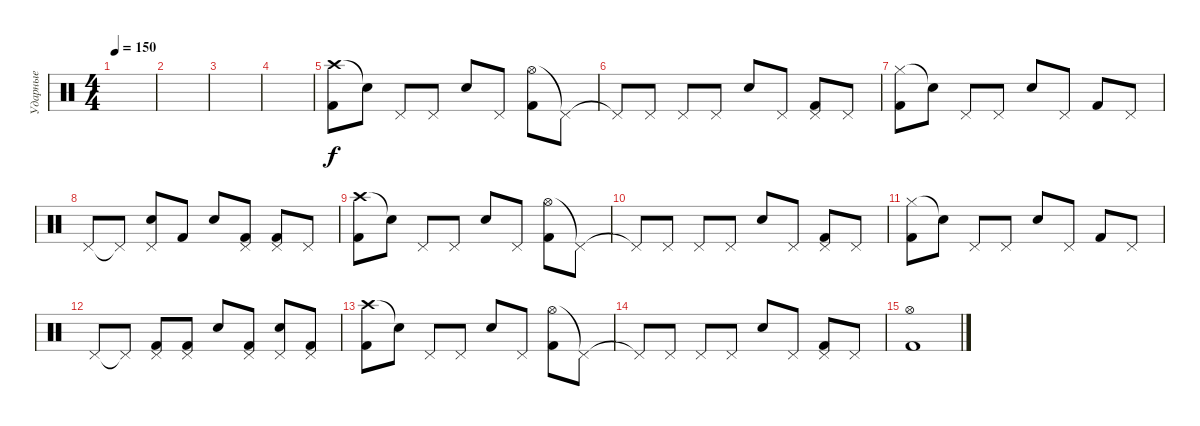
\track ("Ударные" "Ударные") {instrument percussion}
\staff {score}
\articulation defaults
\ts (4 4)
\tempo 150
\clef neutral
\ks c
|
|
|
|
("Crash high (hit)" "Kick (hit) 2").8 "Snare (hit)"{t}.8 "Pedal Hi-Hat (hit)".8 "Pedal Hi-Hat (hit)".8 "Electric Snare (hit)".8 "Pedal Hi-Hat (hit)".8 ("Hi-Hat (open)" "Kick (hit) 2").8 "Pedal Hi-Hat (hit)"{t}.8 |
"Pedal Hi-Hat (hit)"{t}.8 "Pedal Hi-Hat (hit)".8 "Pedal Hi-Hat (hit)".8 "Pedal Hi-Hat (hit)".8 "Electric Snare (hit)".8 "Pedal Hi-Hat (hit)".8 ("Pedal Hi-Hat (hit)" "Kick (hit) 2").8 "Pedal Hi-Hat (hit)".8 |
("Hi-Hat (closed)" "Kick (hit) 2").8 "Snare (hit)"{t}.8 "Pedal Hi-Hat (hit)".8 "Pedal Hi-Hat (hit)".8 "Electric Snare (hit)".8 "Pedal Hi-Hat (hit)".8 "Kick (hit) 2".8 "Pedal Hi-Hat (hit)".8 |
"Pedal Hi-Hat (hit)".8 "Pedal Hi-Hat (hit)"{t}.8 ("Pedal Hi-Hat (hit)" "Electric Snare (hit)").8 "Kick (hit) 2".8 "Electric Snare (hit)".8 ("Pedal Hi-Hat (hit)" "Kick (hit) 2").8 ("Pedal Hi-Hat (hit)" "Kick (hit) 2").8 "Pedal Hi-Hat (hit)".8 |
("Crash high (hit)" "Kick (hit) 2").8 "Snare (hit)"{t}.8 "Pedal Hi-Hat (hit)".8 "Pedal Hi-Hat (hit)".8 "Electric Snare (hit)".8 "Pedal Hi-Hat (hit)".8 ("Hi-Hat (open)" "Kick (hit) 2").8 "Pedal Hi-Hat (hit)"{t}.8 |
"Pedal Hi-Hat (hit)"{t}.8 "Pedal Hi-Hat (hit)".8 "Pedal Hi-Hat (hit)".8 "Pedal Hi-Hat (hit)".8 "Electric Snare (hit)".8 "Pedal Hi-Hat (hit)".8 ("Pedal Hi-Hat (hit)" "Kick (hit) 2").8 "Pedal Hi-Hat (hit)".8 |
("Hi-Hat (closed)" "Kick (hit) 2").8 "Snare (hit)"{t}.8 "Pedal Hi-Hat (hit)".8 "Pedal Hi-Hat (hit)".8 "Electric Snare (hit)".8 "Pedal Hi-Hat (hit)".8 "Kick (hit) 2".8 "Pedal Hi-Hat (hit)".8 |
"Pedal Hi-Hat (hit)".8 "Pedal Hi-Hat (hit)"{t}.8 ("Pedal Hi-Hat (hit)" "Kick (hit) 2").8 ("Pedal Hi-Hat (hit)" "Kick (hit) 2").8 "Electric Snare (hit)".8 ("Pedal Hi-Hat (hit)" "Kick (hit) 2").8 ("Pedal Hi-Hat (hit)" "Electric Snare (hit)").8 ("Pedal Hi-Hat (hit)" "Kick (hit) 2").8 |
("Crash high (hit)" "Kick (hit) 2").8 "Snare (hit)"{t}.8 "Pedal Hi-Hat (hit)".8 "Pedal Hi-Hat (hit)".8 "Electric Snare (hit)".8 "Pedal Hi-Hat (hit)".8 ("Hi-Hat (open)" "Kick (hit) 2").8 "Pedal Hi-Hat (hit)"{t}.8 |
"Pedal Hi-Hat (hit)"{t}.8 "Pedal Hi-Hat (hit)".8 "Pedal Hi-Hat (hit)".8 "Pedal Hi-Hat (hit)".8 "Electric Snare (hit)".8 "Pedal Hi-Hat (hit)".8 ("Pedal Hi-Hat (hit)" "Kick (hit) 2").8 "Pedal Hi-Hat (hit)".8 |
("Hi-Hat (open)" "Kick (hit) 2").1
